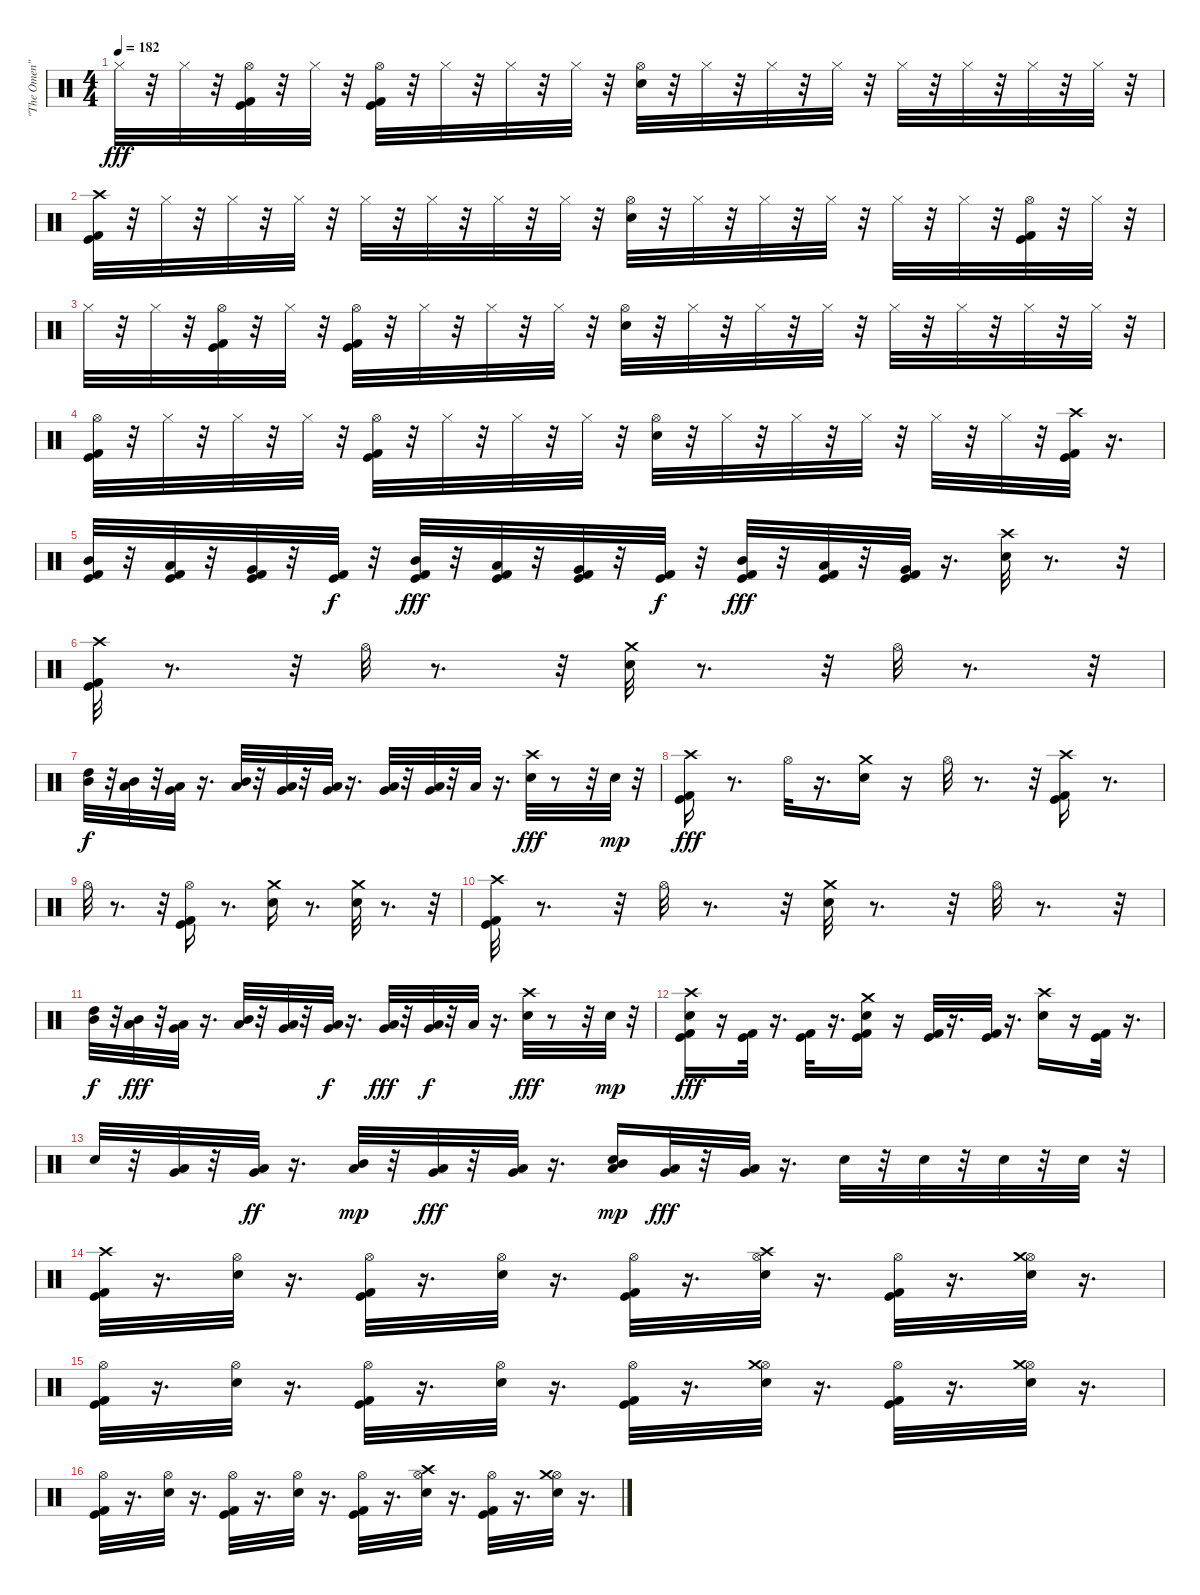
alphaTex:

\track ("\"The Omen\"" "\"The Omen\"") {instrument percussion}
\staff {score}
\articulation defaults
\ts (4 4)
\tempo 182
\clef neutral
\ks c "Hi-Hat (closed)".32{dy fff}
r.32 "Hi-Hat (closed)".32 r.32 ("Kick (hit)" "Kick (hit) 2" "Hi-Hat (open)").32 r.32 "Hi-Hat (closed)".32 r.32 ("Kick (hit)" "Kick (hit) 2" "Hi-Hat (open)").32 r.32 "Hi-Hat (closed)".32 r.32 "Hi-Hat (closed)".32 r.32 "Hi-Hat (closed)".32 r.32 ("Snare (hit) 2" "Hi-Hat (open)").32 r.32 "Hi-Hat (closed)".32 r.32 "Hi-Hat (closed)".32 r.32 "Hi-Hat (closed)".32 r.32 "Hi-Hat (closed)".32 r.32 "Hi-Hat (closed)".32 r.32 "Hi-Hat (closed)".32 r.32 "Hi-Hat (closed)".32 r.32 |
("Kick (hit)" "Kick (hit) 2" "Crash high (hit)").32 r.32 "Hi-Hat (closed)".32 r.32 "Hi-Hat (closed)".32 r.32 "Hi-Hat (closed)".32 r.32 "Hi-Hat (closed)".32 r.32 "Hi-Hat (closed)".32 r.32 "Hi-Hat (closed)".32 r.32 "Hi-Hat (closed)".32 r.32 ("Snare (hit) 2" "Hi-Hat (open)").32 r.32 "Hi-Hat (closed)".32 r.32 "Hi-Hat (closed)".32 r.32 "Hi-Hat (closed)".32 r.32 "Hi-Hat (closed)".32 r.32 "Hi-Hat (closed)".32 r.32 ("Kick (hit)" "Kick (hit) 2" "Hi-Hat (open)").32 r.32 "Hi-Hat (closed)".32 r.32 |
"Hi-Hat (closed)".32 r.32 "Hi-Hat (closed)".32 r.32 ("Kick (hit)" "Kick (hit) 2" "Hi-Hat (open)").32 r.32 "Hi-Hat (closed)".32 r.32 ("Kick (hit)" "Kick (hit) 2" "Hi-Hat (open)").32 r.32 "Hi-Hat (closed)".32 r.32 "Hi-Hat (closed)".32 r.32 "Hi-Hat (closed)".32 r.32 ("Snare (hit) 2" "Hi-Hat (open)").32 r.32 "Hi-Hat (closed)".32 r.32 "Hi-Hat (closed)".32 r.32 "Hi-Hat (closed)".32 r.32 "Hi-Hat (closed)".32 r.32 "Hi-Hat (closed)".32 r.32 "Hi-Hat (closed)".32 r.32 "Hi-Hat (closed)".32 r.32 |
("Kick (hit)" "Kick (hit) 2" "Hi-Hat (open)").32 r.32 "Hi-Hat (closed)".32 r.32 "Hi-Hat (closed)".32 r.32 "Hi-Hat (closed)".32 r.32 ("Kick (hit)" "Kick (hit) 2" "Hi-Hat (open)").32 r.32 "Hi-Hat (closed)".32 r.32 "Hi-Hat (closed)".32 r.32 "Hi-Hat (closed)".32 r.32 ("Snare (hit) 2" "Hi-Hat (open)").32 r.32 "Hi-Hat (closed)".32 r.32 "Hi-Hat (closed)".32 r.32 "Hi-Hat (closed)".32 r.32 "Hi-Hat (closed)".32 r.32 "Hi-Hat (closed)".32 r.32 ("Kick (hit)" "Kick (hit) 2" "Crash high (hit)").32 r.16{d} |
("Kick (hit)" "Kick (hit) 2" "Mid Tom (hit)").32 r.32 ("Kick (hit)" "Kick (hit) 2" "Low Tom (hit)").32 r.32 ("Kick (hit)" "Kick (hit) 2" "Very Low Tom (hit)").32 r.32 ("Kick (hit)" "Kick (hit) 2").32{dy f} r.32 ("Kick (hit)" "Kick (hit) 2" "Mid Tom (hit)").32{dy fff} r.32 ("Kick (hit)" "Kick (hit) 2" "Low Tom (hit)").32 r.32 ("Kick (hit)" "Kick (hit) 2" "Very Low Tom (hit)").32 r.32 ("Kick (hit)" "Kick (hit) 2").32{dy f} r.32 ("Kick (hit)" "Kick (hit) 2" "Mid Tom (hit)").32{dy fff} r.32 ("Kick (hit)" "Kick (hit) 2" "Low Tom (hit)").32 r.32 ("Kick (hit)" "Kick (hit) 2" "Very Low Tom (hit)").32 r.16{d} ("Snare (hit) 2" "Crash high (hit)").32 r.8{d} r.32 |
("Kick (hit)" "Kick (hit) 2" "Crash high (hit)").32 r.8{d} r.32 "Hi-Hat (open)".32 r.8{d} r.32 ("Snare (hit) 2" "Crash medium (hit)").32 r.8{d} r.32 "Hi-Hat (open)".32 r.8{d} r.32 |
("Mid Tom (hit)" "High Tom (hit)").32{dy f} r.32 ("Low Tom (hit)" "Mid Tom (hit)").32 r.32 ("Very Low Tom (hit)" "Low Tom (hit)").32 r.16{d} ("Low Tom (hit)" "Mid Tom (hit)").32 r.32 ("Very Low Tom (hit)" "Low Tom (hit)").32 r.32 ("Low Floor Tom (hit)" "Very Low Tom (hit)").32 r.16{d} ("Very Low Tom (hit)" "Low Tom (hit)").32 r.32 ("Low Floor Tom (hit)" "Very Low Tom (hit)").32 r.32 "Low Floor Tom (hit)".32 r.16{d} ("Snare (hit) 2" "Crash high (hit)").32{dy fff} r.8 r.32 "Snare (hit) 2".32{dy mp} r.32 |
("Kick (hit)" "Kick (hit) 2" "Crash high (hit)").16{dy fff} r.8{d} "Hi-Hat (open)".32 r.16{d} ("Snare (hit) 2" "Crash medium (hit)").16 r.16 "Hi-Hat (open)".32 r.8{d} r.32 ("Kick (hit)" "Kick (hit) 2" "Crash high (hit)").16 r.8{d} |
"Hi-Hat (open)".32 r.8{d} r.32 ("Kick (hit)" "Kick (hit) 2" "Hi-Hat (open)").16 r.8{d} ("Snare (hit) 2" "Crash medium (hit)").16 r.8{d} ("Snare (hit) 2" "Crash medium (hit)").32 r.8{d} r.32 |
("Kick (hit)" "Kick (hit) 2" "Crash high (hit)").32 r.8{d} r.32 "Hi-Hat (open)".32 r.8{d} r.32 ("Snare (hit) 2" "Crash medium (hit)").32 r.8{d} r.32 "Hi-Hat (open)".32 r.8{d} r.32 |
("Mid Tom (hit)" "High Tom (hit)").32{dy f} r.32 ("Low Tom (hit)" "Mid Tom (hit)").32{dy fff} r.32 ("Very Low Tom (hit)" "Low Tom (hit)").32 r.16{d} ("Low Tom (hit)" "Mid Tom (hit)").32 r.32 ("Very Low Tom (hit)" "Low Tom (hit)").32 r.32 ("Low Floor Tom (hit)" "Very Low Tom (hit)").32{dy f} r.16{d} ("Very Low Tom (hit)" "Low Tom (hit)").32{dy fff} r.32 ("Low Floor Tom (hit)" "Very Low Tom (hit)").32{dy f} r.32 "Low Floor Tom (hit)".32 r.16{d} ("Snare (hit) 2" "Crash high (hit)").32{dy fff} r.8 r.32 "Snare (hit) 2".32{dy mp} r.32 |
("Kick (hit)" "Kick (hit) 2" "Snare (hit) 2" "Crash high (hit)").16{dy fff} r.16 ("Kick (hit)" "Kick (hit) 2").32 r.16{d} ("Kick (hit)" "Kick (hit) 2").32 r.16{d} ("Kick (hit)" "Kick (hit) 2" "Snare (hit) 2" "Crash medium (hit)").16 r.16 ("Kick (hit)" "Kick (hit) 2").32 r.16{d} ("Kick (hit)" "Kick (hit) 2").32 r.16{d} ("Snare (hit) 2" "Crash high (hit)").16 r.16 ("Kick (hit)" "Kick (hit) 2").32 r.16{d} |
"Snare (hit) 2".32 r.32 ("Very Low Tom (hit)" "Low Tom (hit)").32 r.32 ("Low Floor Tom (hit)" "Very Low Tom (hit)").32{dy ff} r.16{d} ("Low Tom (hit)" "Mid Tom (hit)").32{dy mp} r.32 ("Very Low Tom (hit)" "Low Tom (hit)").32{dy fff} r.32 ("Low Floor Tom (hit)" "Very Low Tom (hit)").32 r.16{d} ("Snare (hit) 2" "Low Tom (hit)" "Mid Tom (hit)").16{dy mp} ("Very Low Tom (hit)" "Low Tom (hit)").32{dy fff} r.32 ("Low Floor Tom (hit)" "Very Low Tom (hit)").32 r.16{d} "Snare (hit) 2".32 r.32 "Snare (hit) 2".32 r.32 "Snare (hit) 2".32 r.32 "Snare (hit) 2".32 r.32 |
("Kick (hit)" "Kick (hit) 2" "Crash high (hit)").32 r.16{d} ("Snare (hit) 2" "Hi-Hat (open)").32 r.16{d} ("Kick (hit)" "Kick (hit) 2" "Hi-Hat (open)").32 r.16{d} ("Snare (hit) 2" "Hi-Hat (open)").32 r.16{d} ("Kick (hit)" "Kick (hit) 2" "Hi-Hat (open)").32 r.16{d} ("Snare (hit) 2" "Hi-Hat (open)" "Crash high (hit)").32 r.16{d} ("Kick (hit)" "Kick (hit) 2" "Hi-Hat (open)").32 r.16{d} ("Snare (hit) 2" "Hi-Hat (open)" "Crash medium (hit)").32 r.16{d} |
("Kick (hit)" "Kick (hit) 2" "Hi-Hat (open)").32 r.16{d} ("Snare (hit) 2" "Hi-Hat (open)").32 r.16{d} ("Kick (hit)" "Kick (hit) 2" "Hi-Hat (open)").32 r.16{d} ("Snare (hit) 2" "Hi-Hat (open)").32 r.16{d} ("Kick (hit)" "Kick (hit) 2" "Hi-Hat (open)").32 r.16{d} ("Snare (hit) 2" "Hi-Hat (open)" "Crash medium (hit)").32 r.16{d} ("Kick (hit)" "Kick (hit) 2" "Hi-Hat (open)").32 r.16{d} ("Snare (hit) 2" "Hi-Hat (open)" "Crash medium (hit)").32 r.16{d} |
("Kick (hit)" "Kick (hit) 2" "Hi-Hat (open)").32 r.16{d} ("Snare (hit) 2" "Hi-Hat (open)").32 r.16{d} ("Kick (hit)" "Kick (hit) 2" "Hi-Hat (open)").32 r.16{d} ("Snare (hit) 2" "Hi-Hat (open)").32 r.16{d} ("Kick (hit)" "Kick (hit) 2" "Hi-Hat (open)").32 r.16{d} ("Snare (hit) 2" "Hi-Hat (open)" "Crash high (hit)").32 r.16{d} ("Kick (hit)" "Kick (hit) 2" "Hi-Hat (open)").32 r.16{d} ("Snare (hit) 2" "Hi-Hat (open)" "Crash medium (hit)").32 r.16{d}
